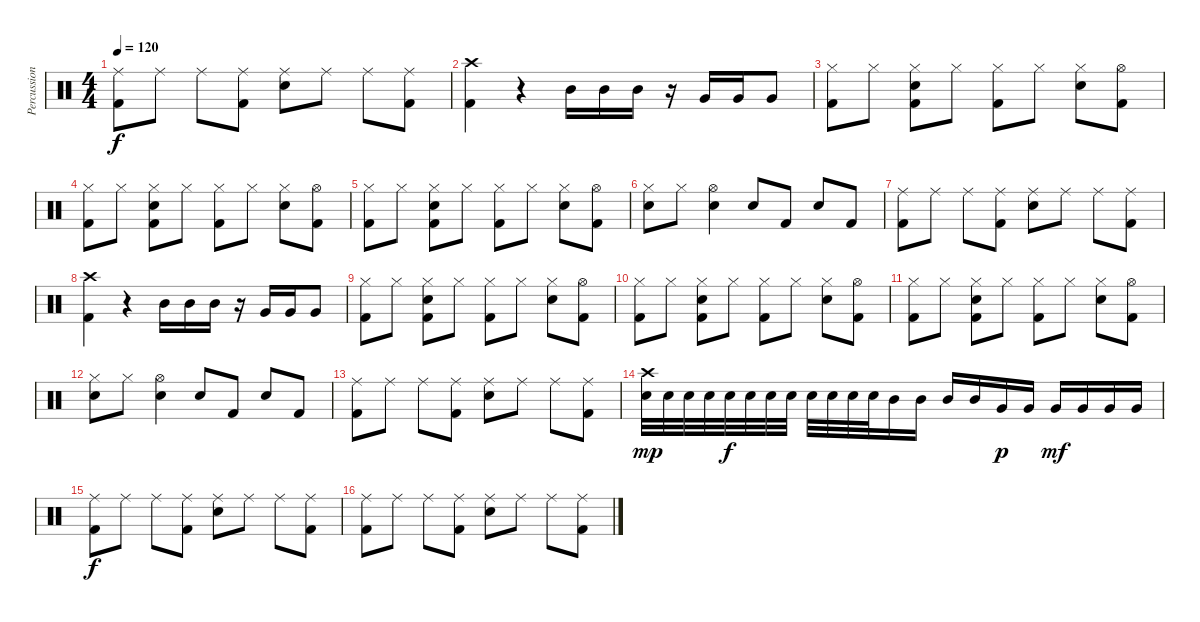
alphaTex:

\track ("Percussions" "Percussion") {instrument percussion}
\staff {score}
\articulation defaults
\ts (4 4)
\tempo 120
\clef neutral
\ks c
("Ride (middle)" "Kick (hit) 2").8{dy f} "Ride (middle)".8 "Ride (middle)".8 ("Ride (middle)" "Kick (hit) 2").8 ("Ride (middle)" "Snare (hit) 2").8 "Ride (middle)".8 "Ride (middle)".8 ("Ride (middle)" "Kick (hit) 2").8 |
("Crash high (hit)" "Kick (hit) 2").4 r.4 "Mid Tom (hit)".16 "Mid Tom (hit)".16 "Mid Tom (hit)".16 r.16 "Very Low Tom (hit)".16 "Very Low Tom (hit)".16 "Very Low Tom (hit)".8 |
("Hi-Hat (closed)" "Kick (hit) 2").8 "Hi-Hat (closed)".8 ("Hi-Hat (closed)" "Snare (hit) 2" "Kick (hit) 2").8 "Hi-Hat (closed)".8 ("Hi-Hat (closed)" "Kick (hit) 2").8 "Hi-Hat (closed)".8 ("Hi-Hat (closed)" "Snare (hit) 2").8 ("Hi-Hat (open)" "Kick (hit) 2").8 |
("Hi-Hat (closed)" "Kick (hit) 2").8 "Hi-Hat (closed)".8 ("Hi-Hat (closed)" "Snare (hit) 2" "Kick (hit) 2").8 "Hi-Hat (closed)".8 ("Hi-Hat (closed)" "Kick (hit) 2").8 "Hi-Hat (closed)".8 ("Hi-Hat (closed)" "Snare (hit) 2").8 ("Hi-Hat (open)" "Kick (hit) 2").8 |
("Hi-Hat (closed)" "Kick (hit) 2").8 "Hi-Hat (closed)".8 ("Hi-Hat (closed)" "Snare (hit) 2" "Kick (hit) 2").8 "Hi-Hat (closed)".8 ("Hi-Hat (closed)" "Kick (hit) 2").8 "Hi-Hat (closed)".8 ("Hi-Hat (closed)" "Snare (hit) 2").8 ("Hi-Hat (open)" "Kick (hit) 2").8 |
("Hi-Hat (closed)" "Snare (hit) 2").8 "Hi-Hat (closed)".8 ("Hi-Hat (open)" "Snare (hit) 2").4 "Snare (hit) 2".8 "Kick (hit) 2".8 "Snare (hit) 2".8 "Kick (hit) 2".8 |
("Ride (middle)" "Kick (hit) 2").8 "Ride (middle)".8 "Ride (middle)".8 ("Ride (middle)" "Kick (hit) 2").8 ("Ride (middle)" "Snare (hit) 2").8 "Ride (middle)".8 "Ride (middle)".8 ("Ride (middle)" "Kick (hit) 2").8 |
("Crash high (hit)" "Kick (hit) 2").4 r.4 "Mid Tom (hit)".16 "Mid Tom (hit)".16 "Mid Tom (hit)".16 r.16 "Very Low Tom (hit)".16 "Very Low Tom (hit)".16 "Very Low Tom (hit)".8 |
("Hi-Hat (closed)" "Kick (hit) 2").8 "Hi-Hat (closed)".8 ("Hi-Hat (closed)" "Snare (hit) 2" "Kick (hit) 2").8 "Hi-Hat (closed)".8 ("Hi-Hat (closed)" "Kick (hit) 2").8 "Hi-Hat (closed)".8 ("Hi-Hat (closed)" "Snare (hit) 2").8 ("Hi-Hat (open)" "Kick (hit) 2").8 |
("Hi-Hat (closed)" "Kick (hit) 2").8 "Hi-Hat (closed)".8 ("Hi-Hat (closed)" "Snare (hit) 2" "Kick (hit) 2").8 "Hi-Hat (closed)".8 ("Hi-Hat (closed)" "Kick (hit) 2").8 "Hi-Hat (closed)".8 ("Hi-Hat (closed)" "Snare (hit) 2").8 ("Hi-Hat (open)" "Kick (hit) 2").8 |
("Hi-Hat (closed)" "Kick (hit) 2").8 "Hi-Hat (closed)".8 ("Hi-Hat (closed)" "Snare (hit) 2" "Kick (hit) 2").8 "Hi-Hat (closed)".8 ("Hi-Hat (closed)" "Kick (hit) 2").8 "Hi-Hat (closed)".8 ("Hi-Hat (closed)" "Snare (hit) 2").8 ("Hi-Hat (open)" "Kick (hit) 2").8 |
("Hi-Hat (closed)" "Snare (hit) 2").8 "Hi-Hat (closed)".8 ("Hi-Hat (open)" "Snare (hit) 2").4 "Snare (hit) 2".8 "Kick (hit) 2".8 "Snare (hit) 2".8 "Kick (hit) 2".8 |
("Ride (middle)" "Kick (hit) 2").8 "Ride (middle)".8 "Ride (middle)".8 ("Ride (middle)" "Kick (hit) 2").8 ("Ride (middle)" "Snare (hit) 2").8 "Ride (middle)".8 "Ride (middle)".8 ("Ride (middle)" "Kick (hit) 2").8 |
("Crash high (hit)" "Snare (hit) 2").32{dy mp} "Snare (hit) 2".32 "Snare (hit) 2".32 "Snare (hit) 2".32 "Snare (hit) 2".32{dy f} "Snare (hit) 2".32 "Snare (hit) 2".32 "Snare (hit) 2".32 "Snare (hit) 2".32 "Snare (hit) 2".32 "Snare (hit) 2".32 "Snare (hit) 2".32 "Mid Tom (hit)".16 "Mid Tom (hit)".16 "Mid Tom (hit)".16 "Mid Tom (hit)".16 "Very Low Tom (hit)".16{dy p} "Very Low Tom (hit)".16 "Very Low Tom (hit)".16{dy mf} "Very Low Tom (hit)".16 "Very Low Tom (hit)".16 "Very Low Tom (hit)".16 |
("Ride (middle)" "Kick (hit) 2").8{dy f} "Ride (middle)".8 "Ride (middle)".8 ("Ride (middle)" "Kick (hit) 2").8 ("Ride (middle)" "Snare (hit) 2").8 "Ride (middle)".8 "Ride (middle)".8 ("Ride (middle)" "Kick (hit) 2").8 |
("Ride (middle)" "Kick (hit) 2").8 "Ride (middle)".8 "Ride (middle)".8 ("Ride (middle)" "Kick (hit) 2").8 ("Ride (middle)" "Snare (hit) 2").8 "Ride (middle)".8 "Ride (middle)".8 ("Ride (middle)" "Kick (hit) 2").8
